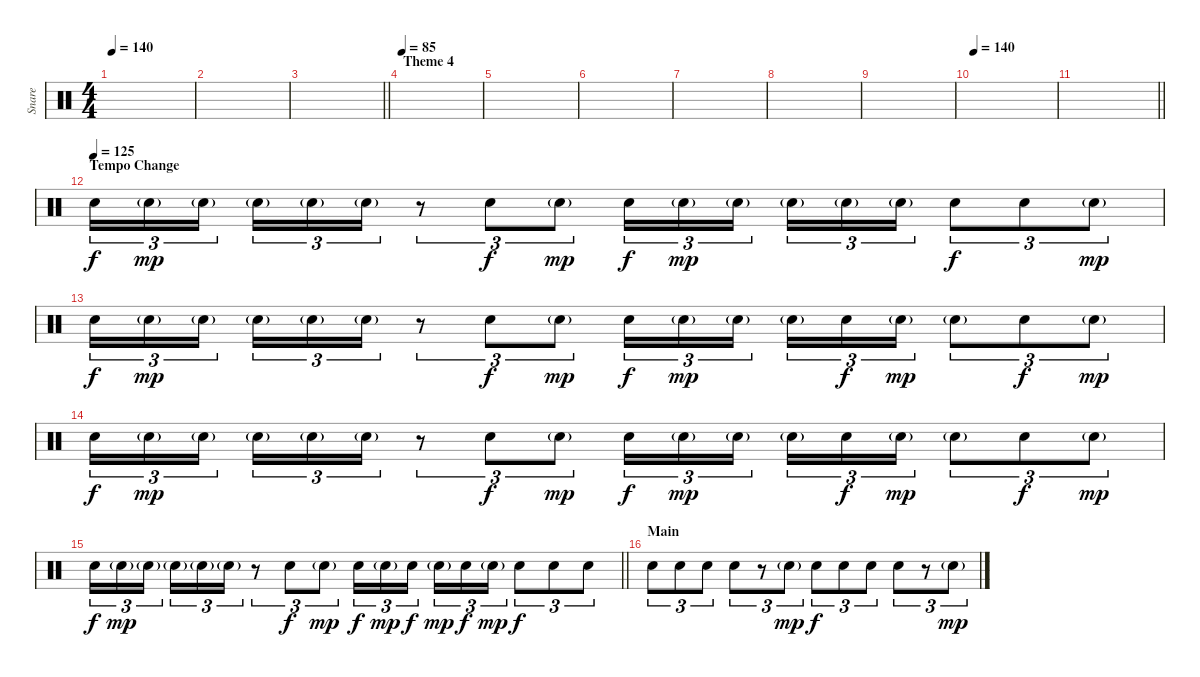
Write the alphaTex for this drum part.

\track ("Snare" "Snare") {instrument percussion}
\staff {score}
\articulation defaults
\ts (4 4)
\tempo 140
\clef neutral
\ks c
|
|
\barLineRight lightlight
|
\section ("" "Theme 4")
\tempo 85
|
|
|
|
|
|
\tempo 140
|
\barLineRight lightlight
|
\section ("" "Tempo Change")
\tempo (125)
"Electric Snare (hit)".16{tu (3 2)} "Electric Snare (hit)"{g}.16{tu (3 2) dy mp} "Electric Snare (hit)"{g}.16{tu (3 2) beam splitsecondary} "Electric Snare (hit)"{g}.16{tu (3 2)} "Electric Snare (hit)"{g}.16{tu (3 2)} "Electric Snare (hit)"{g}.16{tu (3 2)} r.8{tu (3 2)} "Electric Snare (hit)".8{tu (3 2) dy f} "Electric Snare (hit)"{g}.8{tu (3 2) dy mp} "Electric Snare (hit)".16{tu (3 2) dy f} "Electric Snare (hit)"{g}.16{tu (3 2) dy mp} "Electric Snare (hit)"{g}.16{tu (3 2) beam splitsecondary} "Electric Snare (hit)"{g}.16{tu (3 2)} "Electric Snare (hit)"{g}.16{tu (3 2)} "Electric Snare (hit)"{g}.16{tu (3 2)} "Electric Snare (hit)".8{tu (3 2) dy f} "Electric Snare (hit)".8{tu (3 2)} "Electric Snare (hit)"{g}.8{tu (3 2) dy mp} |
"Electric Snare (hit)".16{tu (3 2) dy f} "Electric Snare (hit)"{g}.16{tu (3 2) dy mp} "Electric Snare (hit)"{g}.16{tu (3 2) beam splitsecondary} "Electric Snare (hit)"{g}.16{tu (3 2)} "Electric Snare (hit)"{g}.16{tu (3 2)} "Electric Snare (hit)"{g}.16{tu (3 2)} r.8{tu (3 2)} "Electric Snare (hit)".8{tu (3 2) dy f} "Electric Snare (hit)"{g}.8{tu (3 2) dy mp} "Electric Snare (hit)".16{tu (3 2) dy f} "Electric Snare (hit)"{g}.16{tu (3 2) dy mp} "Electric Snare (hit)"{g}.16{tu (3 2) beam splitsecondary} "Electric Snare (hit)"{g}.16{tu (3 2)} "Electric Snare (hit)".16{tu (3 2) dy f} "Electric Snare (hit)"{g}.16{tu (3 2) dy mp} "Electric Snare (hit)"{g}.8{tu (3 2)} "Electric Snare (hit)".8{tu (3 2) dy f} "Electric Snare (hit)"{g}.8{tu (3 2) dy mp} |
"Electric Snare (hit)".16{tu (3 2) dy f} "Electric Snare (hit)"{g}.16{tu (3 2) dy mp} "Electric Snare (hit)"{g}.16{tu (3 2) beam splitsecondary} "Electric Snare (hit)"{g}.16{tu (3 2)} "Electric Snare (hit)"{g}.16{tu (3 2)} "Electric Snare (hit)"{g}.16{tu (3 2)} r.8{tu (3 2)} "Electric Snare (hit)".8{tu (3 2) dy f} "Electric Snare (hit)"{g}.8{tu (3 2) dy mp} "Electric Snare (hit)".16{tu (3 2) dy f} "Electric Snare (hit)"{g}.16{tu (3 2) dy mp} "Electric Snare (hit)"{g}.16{tu (3 2) beam splitsecondary} "Electric Snare (hit)"{g}.16{tu (3 2)} "Electric Snare (hit)".16{tu (3 2) dy f} "Electric Snare (hit)"{g}.16{tu (3 2) dy mp} "Electric Snare (hit)"{g}.8{tu (3 2)} "Electric Snare (hit)".8{tu (3 2) dy f} "Electric Snare (hit)"{g}.8{tu (3 2) dy mp} |
\barLineRight lightlight "Electric Snare (hit)".16{tu (3 2) dy f} "Electric Snare (hit)"{g}.16{tu (3 2) dy mp} "Electric Snare (hit)"{g}.16{tu (3 2) beam splitsecondary} "Electric Snare (hit)"{g}.16{tu (3 2)} "Electric Snare (hit)"{g}.16{tu (3 2)} "Electric Snare (hit)"{g}.16{tu (3 2)}
r.8{tu (3 2)} "Electric Snare (hit)".8{tu (3 2) dy f} "Electric Snare (hit)"{g}.8{tu (3 2) dy mp} "Electric Snare (hit)".16{tu (3 2) dy f} "Electric Snare (hit)"{g}.16{tu (3 2) dy mp} "Electric Snare (hit)".16{tu (3 2) dy f beam splitsecondary} "Electric Snare (hit)"{g}.16{tu (3 2) dy mp} "Electric Snare (hit)".16{tu (3 2) dy f} "Electric Snare (hit)"{g}.16{tu (3 2) dy mp} "Electric Snare (hit)".8{tu (3 2) dy f} "Electric Snare (hit)".8{tu (3 2)} "Electric Snare (hit)".8{tu (3 2)} |
\section ("" "Main")
"Electric Snare (hit)".8{tu (3 2)} "Electric Snare (hit)".8{tu (3 2)} "Electric Snare (hit)".8{tu (3 2)} "Electric Snare (hit)".8{tu (3 2)} r.8{tu (3 2)} "Electric Snare (hit)"{g}.8{tu (3 2) dy mp} "Electric Snare (hit)".8{tu (3 2) dy f} "Electric Snare (hit)".8{tu (3 2)} "Electric Snare (hit)".8{tu (3 2)} "Electric Snare (hit)".8{tu (3 2)} r.8{tu (3 2)} "Electric Snare (hit)"{g}.8{tu (3 2) dy mp}
